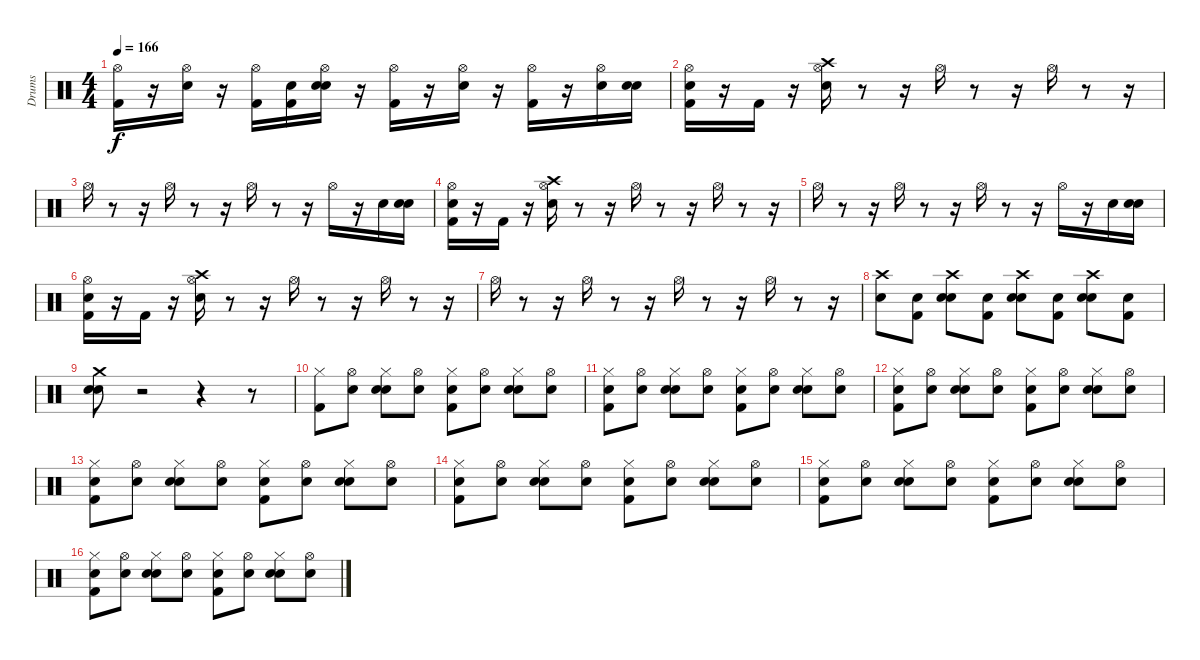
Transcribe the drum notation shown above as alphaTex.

\track ("Drums" "Drums") {instrument percussion}
\staff {score}
\articulation defaults
\ts (4 4)
\tempo 166
\clef neutral
\ks c
("Hi-Hat (open)" "Kick (hit) 2").16{dy f} r.16 ("Hi-Hat (open)" "Electric Snare (hit)").16 r.16 ("Hi-Hat (open)" "Kick (hit) 2").16 ("Snare (hit)" "Kick (hit) 2").16 ("Snare (hit)" "Hi-Hat (open)" "Electric Snare (hit)").16 r.16 ("Kick (hit) 2" "Hi-Hat (open)").16 r.16 ("Hi-Hat (open)" "Electric Snare (hit)").16 r.16 ("Hi-Hat (open)" "Kick (hit) 2").16 r.16 ("Hi-Hat (open)" "Electric Snare (hit)").16 ("Snare (hit)" "Electric Snare (hit)").16 |
("Snare (hit)" "Hi-Hat (open)" "Kick (hit) 2").16 r.16 "Kick (hit) 2".16 r.16 ("Hi-Hat (open)" "Crash high (hit)" "Electric Snare (hit)").16 r.8 r.16 "Hi-Hat (open)".16 r.8 r.16 "Hi-Hat (open)".16 r.8 r.16 |
"Hi-Hat (open)".16 r.8 r.16 "Hi-Hat (open)".16 r.8 r.16 "Hi-Hat (open)".16 r.8 r.16 "Hi-Hat (open)".16 r.16 "Electric Snare (hit)".16 ("Snare (hit)" "Electric Snare (hit)").16 |
("Snare (hit)" "Hi-Hat (open)" "Kick (hit) 2").16 r.16 "Kick (hit) 2".16 r.16 ("Hi-Hat (open)" "Crash high (hit)" "Electric Snare (hit)").16 r.8 r.16 "Hi-Hat (open)".16 r.8 r.16 "Hi-Hat (open)".16 r.8 r.16 |
"Hi-Hat (open)".16 r.8 r.16 "Hi-Hat (open)".16 r.8 r.16 "Hi-Hat (open)".16 r.8 r.16 "Hi-Hat (open)".16 r.16 "Electric Snare (hit)".16 ("Snare (hit)" "Electric Snare (hit)").16 |
("Snare (hit)" "Hi-Hat (open)" "Kick (hit) 2").16 r.16 "Kick (hit) 2".16 r.16 ("Hi-Hat (open)" "Crash high (hit)" "Electric Snare (hit)").16 r.8 r.16 "Hi-Hat (open)".16 r.8 r.16 "Hi-Hat (open)".16 r.8 r.16 |
"Hi-Hat (open)".16 r.8 r.16 "Hi-Hat (open)".16 r.8 r.16 "Hi-Hat (open)".16 r.8 r.16 "Hi-Hat (open)".16 r.8 r.16 |
("Crash high (hit)" "Electric Snare (hit)").8 ("Snare (hit)" "Kick (hit) 2").8 ("Snare (hit)" "Crash high (hit)" "Electric Snare (hit)").8 ("Snare (hit)" "Kick (hit) 2").8 ("Snare (hit)" "Crash high (hit)" "Electric Snare (hit)").8 ("Snare (hit)" "Kick (hit) 2").8 ("Snare (hit)" "Crash high (hit)" "Electric Snare (hit)").8 ("Snare (hit)" "Kick (hit) 2").8 |
("Snare (hit)" "Crash medium (hit)" "Electric Snare (hit)").8 r.2 r.4 r.8 |
("Hi-Hat (closed)" "Kick (hit) 2").8 ("Snare (hit)" "Hi-Hat (open)").8 ("Snare (hit)" "Hi-Hat (closed)" "Snare (hit) 2").8 ("Snare (hit)" "Hi-Hat (open)").8 ("Snare (hit)" "Hi-Hat (closed)" "Kick (hit) 2").8 ("Snare (hit)" "Hi-Hat (open)").8 ("Snare (hit)" "Hi-Hat (closed)" "Snare (hit) 2").8 ("Snare (hit)" "Hi-Hat (open)").8 |
("Snare (hit)" "Hi-Hat (closed)" "Kick (hit) 2").8 ("Snare (hit)" "Hi-Hat (open)").8 ("Snare (hit)" "Hi-Hat (closed)" "Snare (hit) 2").8 ("Snare (hit)" "Hi-Hat (open)").8 ("Snare (hit)" "Hi-Hat (closed)" "Kick (hit) 2").8 ("Snare (hit)" "Hi-Hat (open)").8 ("Snare (hit)" "Hi-Hat (closed)" "Snare (hit) 2").8 ("Snare (hit)" "Hi-Hat (open)").8 |
("Snare (hit)" "Hi-Hat (closed)" "Kick (hit) 2").8 ("Snare (hit)" "Hi-Hat (open)").8 ("Snare (hit)" "Hi-Hat (closed)" "Snare (hit) 2").8 ("Snare (hit)" "Hi-Hat (open)").8 ("Snare (hit)" "Hi-Hat (closed)" "Kick (hit) 2").8 ("Snare (hit)" "Hi-Hat (open)").8 ("Snare (hit)" "Hi-Hat (closed)" "Snare (hit) 2").8 ("Snare (hit)" "Hi-Hat (open)").8 |
("Snare (hit)" "Hi-Hat (closed)" "Kick (hit) 2").8 ("Snare (hit)" "Hi-Hat (open)").8 ("Snare (hit)" "Hi-Hat (closed)" "Snare (hit) 2").8 ("Snare (hit)" "Hi-Hat (open)").8 ("Snare (hit)" "Hi-Hat (closed)" "Kick (hit) 2").8 ("Snare (hit)" "Hi-Hat (open)").8 ("Snare (hit)" "Hi-Hat (closed)" "Snare (hit) 2").8 ("Snare (hit)" "Hi-Hat (open)").8 |
("Snare (hit)" "Hi-Hat (closed)" "Kick (hit) 2").8 ("Snare (hit)" "Hi-Hat (open)").8 ("Snare (hit)" "Hi-Hat (closed)" "Snare (hit) 2").8 ("Snare (hit)" "Hi-Hat (open)").8 ("Snare (hit)" "Hi-Hat (closed)" "Kick (hit) 2").8 ("Snare (hit)" "Hi-Hat (open)").8 ("Snare (hit)" "Hi-Hat (closed)" "Snare (hit) 2").8 ("Snare (hit)" "Hi-Hat (open)").8 |
("Snare (hit)" "Hi-Hat (closed)" "Kick (hit) 2").8 ("Snare (hit)" "Hi-Hat (open)").8 ("Snare (hit)" "Hi-Hat (closed)" "Snare (hit) 2").8 ("Snare (hit)" "Hi-Hat (open)").8 ("Snare (hit)" "Hi-Hat (closed)" "Kick (hit) 2").8 ("Snare (hit)" "Hi-Hat (open)").8 ("Snare (hit)" "Hi-Hat (closed)" "Snare (hit) 2").8 ("Snare (hit)" "Hi-Hat (open)").8 |
("Snare (hit)" "Hi-Hat (closed)" "Kick (hit) 2").8 ("Snare (hit)" "Hi-Hat (open)").8 ("Snare (hit)" "Hi-Hat (closed)" "Snare (hit) 2").8 ("Snare (hit)" "Hi-Hat (open)").8 ("Snare (hit)" "Hi-Hat (closed)" "Kick (hit) 2").8 ("Snare (hit)" "Hi-Hat (open)").8 ("Snare (hit)" "Hi-Hat (closed)" "Snare (hit) 2").8 ("Snare (hit)" "Hi-Hat (open)").8
